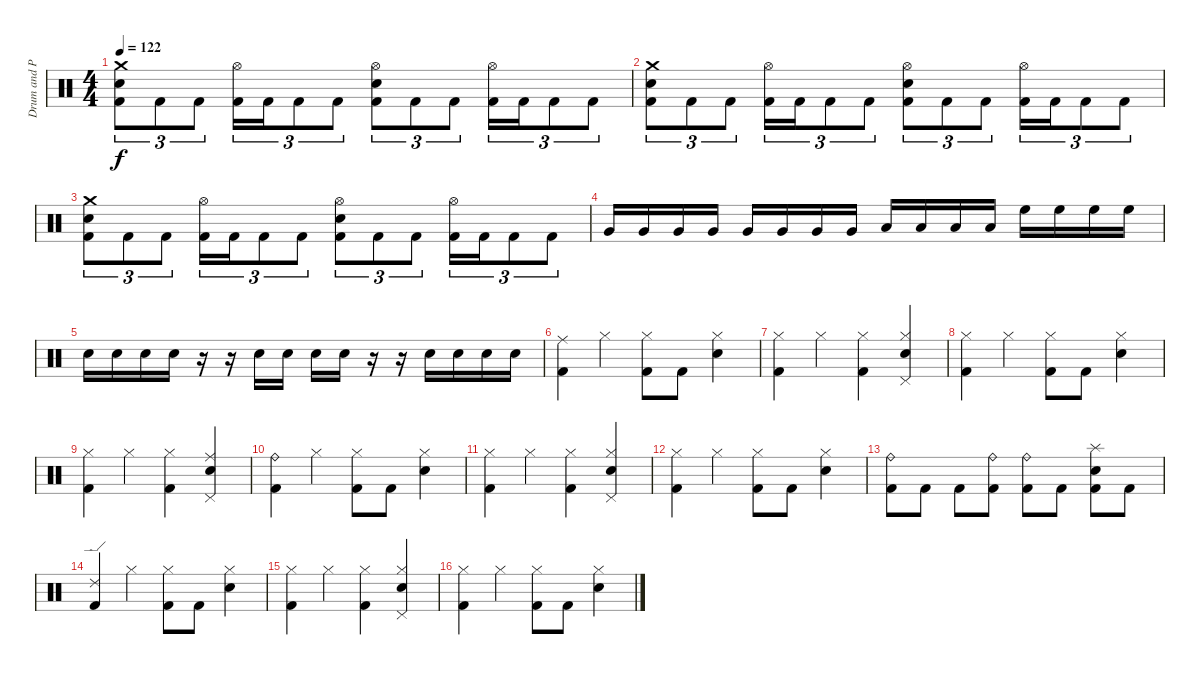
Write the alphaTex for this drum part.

\track ("Drum and Persscusian" "Drum and P") {instrument percussion}
\staff {score}
\articulation defaults
\ts (4 4)
\tempo 122
\clef neutral
\ks c
("Crash medium (hit)" "Snare (hit) 2" "Kick (hit) 2").8{tu (3 2) dy f} "Kick (hit) 2".8{tu (3 2)} "Kick (hit) 2".8{tu (3 2)} ("Hi-Hat (open)" "Kick (hit) 2").16{tu (3 2)} "Kick (hit) 2".16{tu (3 2)} "Kick (hit) 2".8{tu (3 2)} "Kick (hit) 2".8{tu (3 2)} ("Hi-Hat (open)" "Snare (hit) 2" "Kick (hit) 2").8{tu (3 2)} "Kick (hit) 2".8{tu (3 2)} "Kick (hit) 2".8{tu (3 2)} ("Hi-Hat (open)" "Kick (hit) 2").16{tu (3 2)} "Kick (hit) 2".16{tu (3 2)} "Kick (hit) 2".8{tu (3 2)} "Kick (hit) 2".8{tu (3 2)} |
("Crash medium (hit)" "Snare (hit) 2" "Kick (hit) 2").8{tu (3 2)} "Kick (hit) 2".8{tu (3 2)} "Kick (hit) 2".8{tu (3 2)} ("Hi-Hat (open)" "Kick (hit) 2").16{tu (3 2)} "Kick (hit) 2".16{tu (3 2)} "Kick (hit) 2".8{tu (3 2)} "Kick (hit) 2".8{tu (3 2)} ("Hi-Hat (open)" "Snare (hit) 2" "Kick (hit) 2").8{tu (3 2)} "Kick (hit) 2".8{tu (3 2)} "Kick (hit) 2".8{tu (3 2)} ("Hi-Hat (open)" "Kick (hit) 2").16{tu (3 2)} "Kick (hit) 2".16{tu (3 2)} "Kick (hit) 2".8{tu (3 2)} "Kick (hit) 2".8{tu (3 2)} |
("Crash medium (hit)" "Snare (hit) 2" "Kick (hit) 2").8{tu (3 2)} "Kick (hit) 2".8{tu (3 2)} "Kick (hit) 2".8{tu (3 2)} ("Hi-Hat (open)" "Kick (hit) 2").16{tu (3 2)} "Kick (hit) 2".16{tu (3 2)} "Kick (hit) 2".8{tu (3 2)} "Kick (hit) 2".8{tu (3 2)} ("Hi-Hat (open)" "Snare (hit) 2" "Kick (hit) 2").8{tu (3 2)} "Kick (hit) 2".8{tu (3 2)} "Kick (hit) 2".8{tu (3 2)} ("Hi-Hat (open)" "Kick (hit) 2").16{tu (3 2)} "Kick (hit) 2".16{tu (3 2)} "Kick (hit) 2".8{tu (3 2)} "Kick (hit) 2".8{tu (3 2)} |
"Very Low Tom (hit)".16 "Very Low Tom (hit)".16 "Very Low Tom (hit)".16 "Very Low Tom (hit)".16 "Very Low Tom (hit)".16 "Very Low Tom (hit)".16 "Very Low Tom (hit)".16 "Very Low Tom (hit)".16 "Low Tom (hit)".16 "Low Tom (hit)".16 "Low Tom (hit)".16 "Low Tom (hit)".16 "High Floor Tom (hit)".16 "High Floor Tom (hit)".16 "High Floor Tom (hit)".16 "High Floor Tom (hit)".16 |
"Snare (hit) 2".16 "Snare (hit) 2".16 "Snare (hit) 2".16 "Snare (hit) 2".16 r.16 r.16 "Snare (hit) 2".16 "Snare (hit) 2".16 "Snare (hit) 2".16 "Snare (hit) 2".16 r.16 r.16 "Snare (hit) 2".16 "Snare (hit) 2".16 "Snare (hit) 2".16 "Snare (hit) 2".16 |
("Ride (middle)" "Kick (hit) 2").4 "Hi-Hat (closed)".4 ("Hi-Hat (closed)" "Kick (hit) 2").8 "Kick (hit) 2".8 ("Hi-Hat (closed)" "Snare (hit) 2").4 |
("Hi-Hat (closed)" "Kick (hit) 2").4 "Hi-Hat (closed)".4 ("Hi-Hat (closed)" "Kick (hit) 2").4 ("Hi-Hat (closed)" "Pedal Hi-Hat (hit)" "Snare (hit) 2").4 |
("Hi-Hat (closed)" "Kick (hit) 2").4 "Hi-Hat (closed)".4 ("Hi-Hat (closed)" "Kick (hit) 2").8 "Kick (hit) 2".8 ("Hi-Hat (closed)" "Snare (hit) 2").4 |
("Hi-Hat (closed)" "Kick (hit) 2").4 "Hi-Hat (closed)".4 ("Hi-Hat (closed)" "Kick (hit) 2").4 ("Ride (middle)" "Pedal Hi-Hat (hit)" "Snare (hit) 2").4 |
("Ride (bell)" "Kick (hit) 2").4 "Hi-Hat (closed)".4 ("Hi-Hat (closed)" "Kick (hit) 2").8 "Kick (hit) 2".8 ("Hi-Hat (closed)" "Snare (hit) 2").4 |
("Hi-Hat (closed)" "Kick (hit) 2").4 "Hi-Hat (closed)".4 ("Hi-Hat (closed)" "Kick (hit) 2").4 ("Hi-Hat (closed)" "Pedal Hi-Hat (hit)" "Snare (hit) 2").4 |
("Hi-Hat (closed)" "Kick (hit) 2").4 "Hi-Hat (closed)".4 ("Hi-Hat (closed)" "Kick (hit) 2").8 "Kick (hit) 2".8 ("Hi-Hat (closed)" "Snare (hit) 2").4 |
("Ride (bell)" "Kick (hit) 2").8 "Kick (hit) 2".8 "Kick (hit) 2".8 ("Ride (bell)" "Kick (hit) 2").8 ("Ride (bell)" "Kick (hit) 2").8 "Kick (hit) 2".8 ("Splash (hit)" "Snare (hit) 2" "Kick (hit) 2").8 "Kick (hit) 2".8 |
("Ride (edge) 2" "Kick (hit) 2").4 "Hi-Hat (closed)".4 ("Hi-Hat (closed)" "Kick (hit) 2").8 "Kick (hit) 2".8 ("Hi-Hat (closed)" "Snare (hit) 2").4 |
("Hi-Hat (closed)" "Kick (hit) 2").4 "Hi-Hat (closed)".4 ("Hi-Hat (closed)" "Kick (hit) 2").4 ("Hi-Hat (closed)" "Pedal Hi-Hat (hit)" "Snare (hit) 2").4 |
("Hi-Hat (closed)" "Kick (hit) 2").4 "Hi-Hat (closed)".4 ("Hi-Hat (closed)" "Kick (hit) 2").8 "Kick (hit) 2".8 ("Hi-Hat (closed)" "Snare (hit) 2").4
